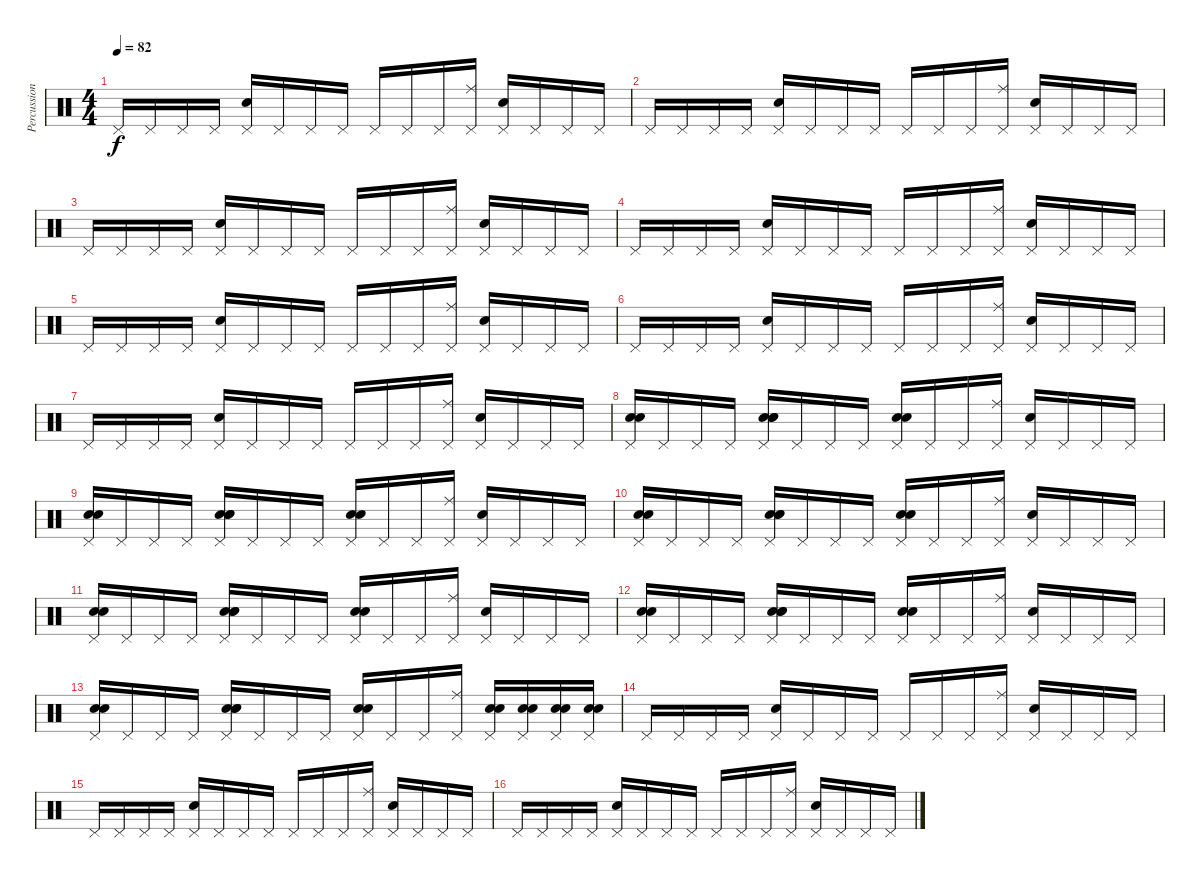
\track ("Percussions" "Percussion") {instrument percussion}
\staff {score}
\articulation defaults
\ts (4 4)
\tempo 82
\clef neutral
\ks c "Pedal Hi-Hat (hit)".16{dy f} "Pedal Hi-Hat (hit)".16 "Pedal Hi-Hat (hit)".16 "Pedal Hi-Hat (hit)".16
("Pedal Hi-Hat (hit)" "Hand Clap (hit)").16 "Pedal Hi-Hat (hit)".16 "Pedal Hi-Hat (hit)".16 "Pedal Hi-Hat (hit)".16 "Pedal Hi-Hat (hit)".16 "Pedal Hi-Hat (hit)".16 "Pedal Hi-Hat (hit)".16 ("Pedal Hi-Hat (hit)" "Ride (middle)").16 ("Pedal Hi-Hat (hit)" "Hand Clap (hit)").16 "Pedal Hi-Hat (hit)".16 "Pedal Hi-Hat (hit)".16 "Pedal Hi-Hat (hit)".16 |
"Pedal Hi-Hat (hit)".16 "Pedal Hi-Hat (hit)".16 "Pedal Hi-Hat (hit)".16 "Pedal Hi-Hat (hit)".16 ("Pedal Hi-Hat (hit)" "Hand Clap (hit)").16 "Pedal Hi-Hat (hit)".16 "Pedal Hi-Hat (hit)".16 "Pedal Hi-Hat (hit)".16 "Pedal Hi-Hat (hit)".16 "Pedal Hi-Hat (hit)".16 "Pedal Hi-Hat (hit)".16 ("Pedal Hi-Hat (hit)" "Ride (middle)").16 ("Pedal Hi-Hat (hit)" "Hand Clap (hit)").16 "Pedal Hi-Hat (hit)".16 "Pedal Hi-Hat (hit)".16 "Pedal Hi-Hat (hit)".16 |
"Pedal Hi-Hat (hit)".16 "Pedal Hi-Hat (hit)".16 "Pedal Hi-Hat (hit)".16 "Pedal Hi-Hat (hit)".16 ("Pedal Hi-Hat (hit)" "Hand Clap (hit)").16 "Pedal Hi-Hat (hit)".16 "Pedal Hi-Hat (hit)".16 "Pedal Hi-Hat (hit)".16 "Pedal Hi-Hat (hit)".16 "Pedal Hi-Hat (hit)".16 "Pedal Hi-Hat (hit)".16 ("Pedal Hi-Hat (hit)" "Ride (middle)").16 ("Pedal Hi-Hat (hit)" "Hand Clap (hit)").16 "Pedal Hi-Hat (hit)".16 "Pedal Hi-Hat (hit)".16 "Pedal Hi-Hat (hit)".16 |
"Pedal Hi-Hat (hit)".16 "Pedal Hi-Hat (hit)".16 "Pedal Hi-Hat (hit)".16 "Pedal Hi-Hat (hit)".16 ("Pedal Hi-Hat (hit)" "Hand Clap (hit)").16 "Pedal Hi-Hat (hit)".16 "Pedal Hi-Hat (hit)".16 "Pedal Hi-Hat (hit)".16 "Pedal Hi-Hat (hit)".16 "Pedal Hi-Hat (hit)".16 "Pedal Hi-Hat (hit)".16 ("Pedal Hi-Hat (hit)" "Ride (middle)").16 ("Pedal Hi-Hat (hit)" "Hand Clap (hit)").16 "Pedal Hi-Hat (hit)".16 "Pedal Hi-Hat (hit)".16 "Pedal Hi-Hat (hit)".16 |
"Pedal Hi-Hat (hit)".16 "Pedal Hi-Hat (hit)".16 "Pedal Hi-Hat (hit)".16 "Pedal Hi-Hat (hit)".16 ("Pedal Hi-Hat (hit)" "Hand Clap (hit)").16 "Pedal Hi-Hat (hit)".16 "Pedal Hi-Hat (hit)".16 "Pedal Hi-Hat (hit)".16 "Pedal Hi-Hat (hit)".16 "Pedal Hi-Hat (hit)".16 "Pedal Hi-Hat (hit)".16 ("Pedal Hi-Hat (hit)" "Ride (middle)").16 ("Pedal Hi-Hat (hit)" "Hand Clap (hit)").16 "Pedal Hi-Hat (hit)".16 "Pedal Hi-Hat (hit)".16 "Pedal Hi-Hat (hit)".16 |
"Pedal Hi-Hat (hit)".16 "Pedal Hi-Hat (hit)".16 "Pedal Hi-Hat (hit)".16 "Pedal Hi-Hat (hit)".16 ("Pedal Hi-Hat (hit)" "Hand Clap (hit)").16 "Pedal Hi-Hat (hit)".16 "Pedal Hi-Hat (hit)".16 "Pedal Hi-Hat (hit)".16 "Pedal Hi-Hat (hit)".16 "Pedal Hi-Hat (hit)".16 "Pedal Hi-Hat (hit)".16 ("Pedal Hi-Hat (hit)" "Ride (middle)").16 ("Pedal Hi-Hat (hit)" "Hand Clap (hit)").16 "Pedal Hi-Hat (hit)".16 "Pedal Hi-Hat (hit)".16 "Pedal Hi-Hat (hit)".16 |
"Pedal Hi-Hat (hit)".16 "Pedal Hi-Hat (hit)".16 "Pedal Hi-Hat (hit)".16 "Pedal Hi-Hat (hit)".16 ("Pedal Hi-Hat (hit)" "Hand Clap (hit)").16 "Pedal Hi-Hat (hit)".16 "Pedal Hi-Hat (hit)".16 "Pedal Hi-Hat (hit)".16 "Pedal Hi-Hat (hit)".16 "Pedal Hi-Hat (hit)".16 "Pedal Hi-Hat (hit)".16 ("Pedal Hi-Hat (hit)" "Ride (middle)").16 ("Pedal Hi-Hat (hit)" "Hand Clap (hit)").16 "Pedal Hi-Hat (hit)".16 "Pedal Hi-Hat (hit)".16 "Pedal Hi-Hat (hit)".16 |
("Pedal Hi-Hat (hit)" "Electric Snare (hit)" "Electric Snare (hit)").16 "Pedal Hi-Hat (hit)".16 "Pedal Hi-Hat (hit)".16 "Pedal Hi-Hat (hit)".16 ("Pedal Hi-Hat (hit)" "Hand Clap (hit)" "Electric Snare (hit)" "Electric Snare (hit)").16 "Pedal Hi-Hat (hit)".16 "Pedal Hi-Hat (hit)".16 "Pedal Hi-Hat (hit)".16 ("Pedal Hi-Hat (hit)" "Hand Clap (hit)" "Hand Clap (hit)").16 "Pedal Hi-Hat (hit)".16 "Pedal Hi-Hat (hit)".16 ("Pedal Hi-Hat (hit)" "Ride (middle)").16 ("Pedal Hi-Hat (hit)" "Hand Clap (hit)").16 "Pedal Hi-Hat (hit)".16 "Pedal Hi-Hat (hit)".16 "Pedal Hi-Hat (hit)".16 |
("Pedal Hi-Hat (hit)" "Electric Snare (hit)" "Electric Snare (hit)").16 "Pedal Hi-Hat (hit)".16 "Pedal Hi-Hat (hit)".16 "Pedal Hi-Hat (hit)".16 ("Pedal Hi-Hat (hit)" "Hand Clap (hit)" "Electric Snare (hit)" "Electric Snare (hit)").16 "Pedal Hi-Hat (hit)".16 "Pedal Hi-Hat (hit)".16 "Pedal Hi-Hat (hit)".16 ("Pedal Hi-Hat (hit)" "Hand Clap (hit)" "Hand Clap (hit)").16 "Pedal Hi-Hat (hit)".16 "Pedal Hi-Hat (hit)".16 ("Pedal Hi-Hat (hit)" "Ride (middle)").16 ("Pedal Hi-Hat (hit)" "Hand Clap (hit)").16 "Pedal Hi-Hat (hit)".16 "Pedal Hi-Hat (hit)".16 "Pedal Hi-Hat (hit)".16 |
("Pedal Hi-Hat (hit)" "Electric Snare (hit)" "Electric Snare (hit)").16 "Pedal Hi-Hat (hit)".16 "Pedal Hi-Hat (hit)".16 "Pedal Hi-Hat (hit)".16 ("Pedal Hi-Hat (hit)" "Hand Clap (hit)" "Electric Snare (hit)" "Electric Snare (hit)").16 "Pedal Hi-Hat (hit)".16 "Pedal Hi-Hat (hit)".16 "Pedal Hi-Hat (hit)".16 ("Pedal Hi-Hat (hit)" "Hand Clap (hit)" "Hand Clap (hit)").16 "Pedal Hi-Hat (hit)".16 "Pedal Hi-Hat (hit)".16 ("Pedal Hi-Hat (hit)" "Ride (middle)").16 ("Pedal Hi-Hat (hit)" "Hand Clap (hit)").16 "Pedal Hi-Hat (hit)".16 "Pedal Hi-Hat (hit)".16 "Pedal Hi-Hat (hit)".16 |
("Pedal Hi-Hat (hit)" "Electric Snare (hit)" "Electric Snare (hit)").16 "Pedal Hi-Hat (hit)".16 "Pedal Hi-Hat (hit)".16 "Pedal Hi-Hat (hit)".16 ("Pedal Hi-Hat (hit)" "Hand Clap (hit)" "Electric Snare (hit)" "Electric Snare (hit)").16 "Pedal Hi-Hat (hit)".16 "Pedal Hi-Hat (hit)".16 "Pedal Hi-Hat (hit)".16 ("Pedal Hi-Hat (hit)" "Hand Clap (hit)" "Hand Clap (hit)").16 "Pedal Hi-Hat (hit)".16 "Pedal Hi-Hat (hit)".16 ("Pedal Hi-Hat (hit)" "Ride (middle)").16 ("Pedal Hi-Hat (hit)" "Hand Clap (hit)").16 "Pedal Hi-Hat (hit)".16 "Pedal Hi-Hat (hit)".16 "Pedal Hi-Hat (hit)".16 |
("Pedal Hi-Hat (hit)" "Electric Snare (hit)" "Electric Snare (hit)").16 "Pedal Hi-Hat (hit)".16 "Pedal Hi-Hat (hit)".16 "Pedal Hi-Hat (hit)".16 ("Pedal Hi-Hat (hit)" "Hand Clap (hit)" "Electric Snare (hit)" "Electric Snare (hit)").16 "Pedal Hi-Hat (hit)".16 "Pedal Hi-Hat (hit)".16 "Pedal Hi-Hat (hit)".16 ("Pedal Hi-Hat (hit)" "Hand Clap (hit)" "Hand Clap (hit)").16 "Pedal Hi-Hat (hit)".16 "Pedal Hi-Hat (hit)".16 ("Pedal Hi-Hat (hit)" "Ride (middle)").16 ("Pedal Hi-Hat (hit)" "Hand Clap (hit)").16 "Pedal Hi-Hat (hit)".16 "Pedal Hi-Hat (hit)".16 "Pedal Hi-Hat (hit)".16 |
("Pedal Hi-Hat (hit)" "Electric Snare (hit)" "Electric Snare (hit)").16 "Pedal Hi-Hat (hit)".16 "Pedal Hi-Hat (hit)".16 "Pedal Hi-Hat (hit)".16 ("Pedal Hi-Hat (hit)" "Hand Clap (hit)" "Electric Snare (hit)" "Electric Snare (hit)").16 "Pedal Hi-Hat (hit)".16 "Pedal Hi-Hat (hit)".16 "Pedal Hi-Hat (hit)".16 ("Pedal Hi-Hat (hit)" "Hand Clap (hit)" "Hand Clap (hit)").16 "Pedal Hi-Hat (hit)".16 "Pedal Hi-Hat (hit)".16 ("Pedal Hi-Hat (hit)" "Ride (middle)").16 ("Pedal Hi-Hat (hit)" "Hand Clap (hit)" "Hand Clap (hit)").16 ("Pedal Hi-Hat (hit)" "Hand Clap (hit)" "Hand Clap (hit)").16 ("Pedal Hi-Hat (hit)" "Electric Snare (hit)" "Electric Snare (hit)").16 ("Pedal Hi-Hat (hit)" "Electric Snare (hit)" "Electric Snare (hit)").16 |
"Pedal Hi-Hat (hit)".16 "Pedal Hi-Hat (hit)".16 "Pedal Hi-Hat (hit)".16 "Pedal Hi-Hat (hit)".16 ("Pedal Hi-Hat (hit)" "Hand Clap (hit)").16 "Pedal Hi-Hat (hit)".16 "Pedal Hi-Hat (hit)".16 "Pedal Hi-Hat (hit)".16 "Pedal Hi-Hat (hit)".16 "Pedal Hi-Hat (hit)".16 "Pedal Hi-Hat (hit)".16 ("Pedal Hi-Hat (hit)" "Ride (middle)").16 ("Pedal Hi-Hat (hit)" "Hand Clap (hit)").16 "Pedal Hi-Hat (hit)".16 "Pedal Hi-Hat (hit)".16 "Pedal Hi-Hat (hit)".16 |
"Pedal Hi-Hat (hit)".16 "Pedal Hi-Hat (hit)".16 "Pedal Hi-Hat (hit)".16 "Pedal Hi-Hat (hit)".16 ("Pedal Hi-Hat (hit)" "Hand Clap (hit)").16 "Pedal Hi-Hat (hit)".16 "Pedal Hi-Hat (hit)".16 "Pedal Hi-Hat (hit)".16 "Pedal Hi-Hat (hit)".16 "Pedal Hi-Hat (hit)".16 "Pedal Hi-Hat (hit)".16 ("Pedal Hi-Hat (hit)" "Ride (middle)").16 ("Pedal Hi-Hat (hit)" "Hand Clap (hit)").16 "Pedal Hi-Hat (hit)".16 "Pedal Hi-Hat (hit)".16 "Pedal Hi-Hat (hit)".16 |
"Pedal Hi-Hat (hit)".16 "Pedal Hi-Hat (hit)".16 "Pedal Hi-Hat (hit)".16 "Pedal Hi-Hat (hit)".16 ("Pedal Hi-Hat (hit)" "Hand Clap (hit)").16 "Pedal Hi-Hat (hit)".16 "Pedal Hi-Hat (hit)".16 "Pedal Hi-Hat (hit)".16 "Pedal Hi-Hat (hit)".16 "Pedal Hi-Hat (hit)".16 "Pedal Hi-Hat (hit)".16 ("Pedal Hi-Hat (hit)" "Ride (middle)").16 ("Pedal Hi-Hat (hit)" "Hand Clap (hit)").16 "Pedal Hi-Hat (hit)".16 "Pedal Hi-Hat (hit)".16 "Pedal Hi-Hat (hit)".16
